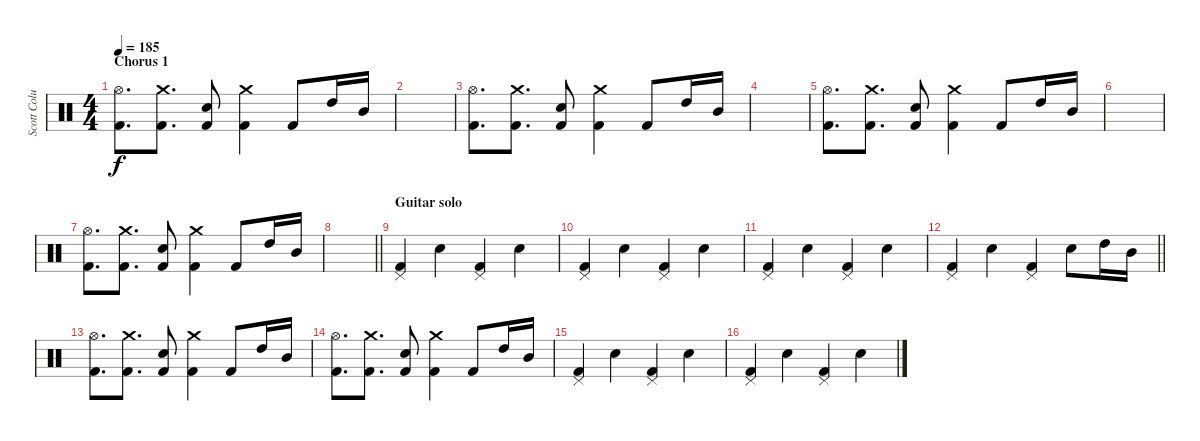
\track ("Scott Columbus" "Scott Colu") {instrument percussion}
\staff {score}
\articulation defaults
\ts (4 4)
\section ("" "Chorus 1")
\tempo 185
\clef neutral
\ks c
("Hi-Hat (open)" "Kick (hit) 2").8{d dy f} ("Crash medium (hit)" "Kick (hit) 2").8{d} ("Snare (hit) 2" "Kick (hit) 2").8 ("Crash medium (hit)" "Kick (hit) 2").4 "Kick (hit) 2".8 "High Tom (hit)".16 "Mid Tom (hit)".16 |
|
("Hi-Hat (open)" "Kick (hit) 2").8{d} ("Crash medium (hit)" "Kick (hit) 2").8{d} ("Snare (hit) 2" "Kick (hit) 2").8 ("Crash medium (hit)" "Kick (hit) 2").4 "Kick (hit) 2".8 "High Tom (hit)".16 "Mid Tom (hit)".16 |
|
("Hi-Hat (open)" "Kick (hit) 2").8{d} ("Crash medium (hit)" "Kick (hit) 2").8{d} ("Snare (hit) 2" "Kick (hit) 2").8 ("Crash medium (hit)" "Kick (hit) 2").4 "Kick (hit) 2".8 "High Tom (hit)".16 "Mid Tom (hit)".16 |
|
("Hi-Hat (open)" "Kick (hit) 2").8{d} ("Crash medium (hit)" "Kick (hit) 2").8{d} ("Snare (hit) 2" "Kick (hit) 2").8 ("Crash medium (hit)" "Kick (hit) 2").4 "Kick (hit) 2".8 "High Tom (hit)".16 "Mid Tom (hit)".16 |
\barLineRight lightlight
|
\section ("" "Guitar solo")
("Pedal Hi-Hat (hit)" "Kick (hit) 2").4 "Snare (hit) 2".4 ("Pedal Hi-Hat (hit)" "Kick (hit) 2").4 "Snare (hit) 2".4 |
("Pedal Hi-Hat (hit)" "Kick (hit) 2").4 "Snare (hit) 2".4 ("Pedal Hi-Hat (hit)" "Kick (hit) 2").4 "Snare (hit) 2".4 |
("Pedal Hi-Hat (hit)" "Kick (hit) 2").4 "Snare (hit) 2".4 ("Pedal Hi-Hat (hit)" "Kick (hit) 2").4 "Snare (hit) 2".4 |
\barLineRight lightlight
("Pedal Hi-Hat (hit)" "Kick (hit) 2").4 "Snare (hit) 2".4 ("Pedal Hi-Hat (hit)" "Kick (hit) 2").4 "Snare (hit) 2".8 "High Tom (hit)".16 "Mid Tom (hit)".16 |
("Hi-Hat (open)" "Kick (hit) 2").8{d} ("Crash medium (hit)" "Kick (hit) 2").8{d} ("Snare (hit) 2" "Kick (hit) 2").8 ("Crash medium (hit)" "Kick (hit) 2").4 "Kick (hit) 2".8 "High Tom (hit)".16 "Mid Tom (hit)".16 |
("Hi-Hat (open)" "Kick (hit) 2").8{d} ("Crash medium (hit)" "Kick (hit) 2").8{d} ("Snare (hit) 2" "Kick (hit) 2").8 ("Crash medium (hit)" "Kick (hit) 2").4 "Kick (hit) 2".8 "High Tom (hit)".16 "Mid Tom (hit)".16 |
("Pedal Hi-Hat (hit)" "Kick (hit) 2").4 "Snare (hit) 2".4 ("Pedal Hi-Hat (hit)" "Kick (hit) 2").4 "Snare (hit) 2".4 |
("Pedal Hi-Hat (hit)" "Kick (hit) 2").4 "Snare (hit) 2".4 ("Pedal Hi-Hat (hit)" "Kick (hit) 2").4 "Snare (hit) 2".4
